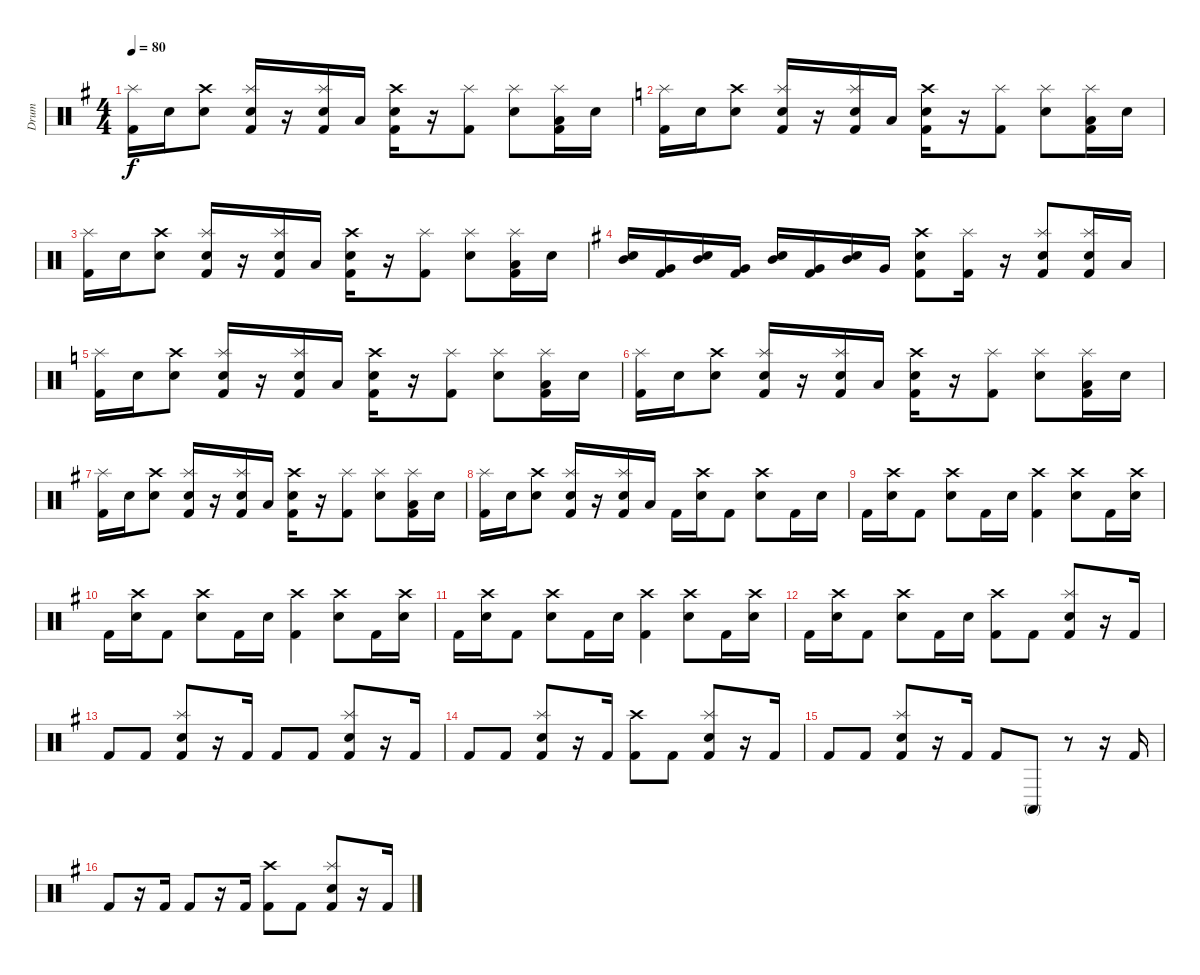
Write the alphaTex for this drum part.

\track ("Drum" "Drum") {instrument percussion}
\staff {score}
\articulation defaults
\ts (4 4)
\tempo 80
\clef neutral
\ks eminor
("Kick (hit) 2" "Splash (hit)").16{dy f} "Electric Snare (hit)".16 ("Electric Snare (hit)" "Crash high (hit)").8 ("Electric Snare (hit)" "Kick (hit) 2" "Splash (hit)").16 r.16 ("Electric Snare (hit)" "Kick (hit) 2" "Splash (hit)").16 "Low Tom (hit)".16 ("Electric Snare (hit)" "Kick (hit) 2" "Crash high (hit)").16 r.16 ("Kick (hit) 2" "Splash (hit)").8 ("Electric Snare (hit)" "Splash (hit)").8 ("Low Tom (hit)" "Kick (hit) 2" "Splash (hit)").16 "Electric Snare (hit)".16 |
\ks c
("Kick (hit) 2" "Splash (hit)").16 "Electric Snare (hit)".16 ("Electric Snare (hit)" "Crash high (hit)").8 ("Electric Snare (hit)" "Kick (hit) 2" "Splash (hit)").16 r.16 ("Electric Snare (hit)" "Kick (hit) 2" "Splash (hit)").16 "Low Tom (hit)".16 ("Electric Snare (hit)" "Kick (hit) 2" "Crash high (hit)").16 r.16 ("Kick (hit) 2" "Splash (hit)").8 ("Electric Snare (hit)" "Splash (hit)").8 ("Low Tom (hit)" "Kick (hit) 2" "Splash (hit)").16 "Electric Snare (hit)".16 |
("Kick (hit) 2" "Splash (hit)").16 "Electric Snare (hit)".16 ("Electric Snare (hit)" "Crash high (hit)").8 ("Electric Snare (hit)" "Kick (hit) 2" "Splash (hit)").16 r.16 ("Electric Snare (hit)" "Kick (hit) 2" "Splash (hit)").16 "Low Tom (hit)".16 ("Electric Snare (hit)" "Kick (hit) 2" "Crash high (hit)").16 r.16 ("Kick (hit) 2" "Splash (hit)").8 ("Electric Snare (hit)" "Splash (hit)").8 ("Low Tom (hit)" "Kick (hit) 2" "Splash (hit)").16 "Electric Snare (hit)".16 |
\ks eminor
("Electric Snare (hit)" "Mid Tom (hit)").16 ("Very Low Tom (hit)" "Kick (hit) 2").16 ("Electric Snare (hit)" "Mid Tom (hit)").16 ("Very Low Tom (hit)" "Kick (hit) 2").16 ("Electric Snare (hit)" "Mid Tom (hit)").16 ("Very Low Tom (hit)" "Kick (hit) 2").16 ("Electric Snare (hit)" "Mid Tom (hit)").16 "Very Low Tom (hit)".16 ("Electric Snare (hit)" "Kick (hit) 2" "Crash high (hit)").8 ("Kick (hit) 2" "Splash (hit)").16 r.16 ("Electric Snare (hit)" "Kick (hit) 2" "Splash (hit)").8 ("Electric Snare (hit)" "Kick (hit) 2" "Splash (hit)").16 "Low Tom (hit)".16 |
\ks c
("Kick (hit) 2" "Splash (hit)").16 "Electric Snare (hit)".16 ("Electric Snare (hit)" "Crash high (hit)").8 ("Electric Snare (hit)" "Kick (hit) 2" "Splash (hit)").16 r.16 ("Electric Snare (hit)" "Kick (hit) 2" "Splash (hit)").16 "Low Tom (hit)".16 ("Electric Snare (hit)" "Kick (hit) 2" "Crash high (hit)").16 r.16 ("Kick (hit) 2" "Splash (hit)").8 ("Electric Snare (hit)" "Splash (hit)").8 ("Low Tom (hit)" "Kick (hit) 2" "Splash (hit)").16 "Electric Snare (hit)".16 |
("Kick (hit) 2" "Splash (hit)").16 "Electric Snare (hit)".16 ("Electric Snare (hit)" "Crash high (hit)").8 ("Electric Snare (hit)" "Kick (hit) 2" "Splash (hit)").16 r.16 ("Electric Snare (hit)" "Kick (hit) 2" "Splash (hit)").16 "Low Tom (hit)".16 ("Electric Snare (hit)" "Kick (hit) 2" "Crash high (hit)").16 r.16 ("Kick (hit) 2" "Splash (hit)").8 ("Electric Snare (hit)" "Splash (hit)").8 ("Low Tom (hit)" "Kick (hit) 2" "Splash (hit)").16 "Electric Snare (hit)".16 |
\ks eminor
("Kick (hit) 2" "Splash (hit)").16 "Electric Snare (hit)".16 ("Electric Snare (hit)" "Crash high (hit)").8 ("Electric Snare (hit)" "Kick (hit) 2" "Splash (hit)").16 r.16 ("Electric Snare (hit)" "Kick (hit) 2" "Splash (hit)").16 "Low Tom (hit)".16 ("Electric Snare (hit)" "Kick (hit) 2" "Crash high (hit)").16 r.16 ("Kick (hit) 2" "Splash (hit)").8 ("Electric Snare (hit)" "Splash (hit)").8 ("Low Tom (hit)" "Kick (hit) 2" "Splash (hit)").16 "Electric Snare (hit)".16 |
("Kick (hit) 2" "Splash (hit)").16 "Electric Snare (hit)".16 ("Electric Snare (hit)" "Crash high (hit)").8 ("Electric Snare (hit)" "Kick (hit) 2" "Splash (hit)").16 r.16 ("Electric Snare (hit)" "Kick (hit) 2" "Splash (hit)").16 "Low Tom (hit)".16 "Kick (hit) 2".16 ("Electric Snare (hit)" "Crash high (hit)").16 "Kick (hit) 2".8 ("Electric Snare (hit)" "Crash high (hit)").8 "Kick (hit) 2".16 "Electric Snare (hit)".16 |
"Kick (hit) 2".16 ("Electric Snare (hit)" "Crash high (hit)").16 "Kick (hit) 2".8 ("Electric Snare (hit)" "Crash high (hit)").8 "Kick (hit) 2".16 "Electric Snare (hit)".16 ("Kick (hit) 2" "Crash high (hit)").4 ("Electric Snare (hit)" "Crash high (hit)").8 "Kick (hit) 2".16 ("Electric Snare (hit)" "Crash high (hit)").16 |
"Kick (hit) 2".16 ("Electric Snare (hit)" "Crash high (hit)").16 "Kick (hit) 2".8 ("Electric Snare (hit)" "Crash high (hit)").8 "Kick (hit) 2".16 "Electric Snare (hit)".16 ("Kick (hit) 2" "Crash high (hit)").4 ("Electric Snare (hit)" "Crash high (hit)").8 "Kick (hit) 2".16 ("Electric Snare (hit)" "Crash high (hit)").16 |
"Kick (hit) 2".16 ("Electric Snare (hit)" "Crash high (hit)").16 "Kick (hit) 2".8 ("Electric Snare (hit)" "Crash high (hit)").8 "Kick (hit) 2".16 "Electric Snare (hit)".16 ("Kick (hit) 2" "Crash high (hit)").4 ("Electric Snare (hit)" "Crash high (hit)").8 "Kick (hit) 2".16 ("Electric Snare (hit)" "Crash high (hit)").16 |
"Kick (hit) 2".16 ("Electric Snare (hit)" "Crash high (hit)").16 "Kick (hit) 2".8 ("Electric Snare (hit)" "Crash high (hit)").8 "Kick (hit) 2".16 "Electric Snare (hit)".16 ("Kick (hit) 2" "Crash high (hit)").8 "Kick (hit) 2".8 ("Electric Snare (hit)" "Kick (hit) 2" "Splash (hit)").8 r.16 "Kick (hit) 2".16 |
"Kick (hit) 2".8 "Kick (hit) 2".8 ("Electric Snare (hit)" "Kick (hit) 2" "Splash (hit)").8 r.16 "Kick (hit) 2".16 "Kick (hit) 2".8 "Kick (hit) 2".8 ("Electric Snare (hit)" "Kick (hit) 2" "Splash (hit)").8 r.16 "Kick (hit) 2".16 |
"Kick (hit) 2".8 "Kick (hit) 2".8 ("Electric Snare (hit)" "Kick (hit) 2" "Splash (hit)").8 r.16 "Kick (hit) 2".16 ("Kick (hit) 2" "Crash high (hit)").8 "Kick (hit) 2".8 ("Electric Snare (hit)" "Kick (hit) 2" "Splash (hit)").8 r.16 "Kick (hit) 2".16 |
"Kick (hit) 2".8 "Kick (hit) 2".8 ("Electric Snare (hit)" "Kick (hit) 2" "Splash (hit)").8 r.16 "Kick (hit) 2".16 "Kick (hit) 2".8 "Conga high (mute)".8 r.8 r.16 "Kick (hit) 2".16 |
"Kick (hit) 2".8 r.16 "Kick (hit) 2".16 "Kick (hit) 2".8 r.16 "Kick (hit) 2".16 ("Kick (hit) 2" "Crash high (hit)").8 "Kick (hit) 2".8 ("Electric Snare (hit)" "Kick (hit) 2" "Splash (hit)").8 r.16 "Kick (hit) 2".16
